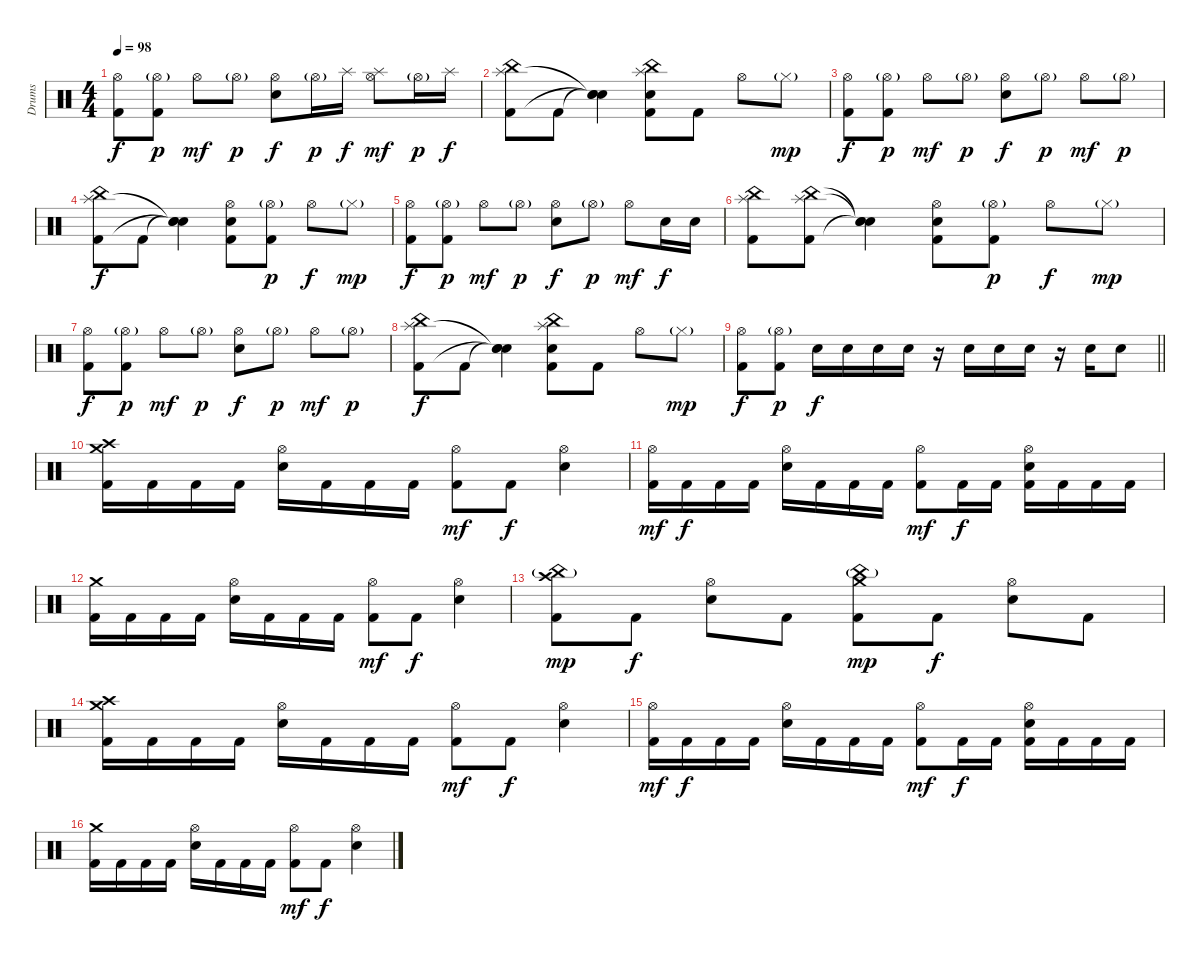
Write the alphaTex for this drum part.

\track ("Drums" "Drums") {instrument percussion}
\staff {score}
\articulation defaults
\ts (4 4)
\tempo 98
\clef neutral
\ks c
("Hi-Hat (open)" "Kick (hit) 2").8{dy f} ("Hi-Hat (open)"{g} "Kick (hit) 2").8{dy p} "Hi-Hat (open)".8{dy mf} "Hi-Hat (open)"{g}.8{dy p} ("Hi-Hat (open)" "Electric Snare (hit)").8{dy f} "Hi-Hat (open)"{g}.16{dy p} "Splash (hit)".16{dy f} ("Splash (hit)" "Hi-Hat (open)").8{dy mf} "Hi-Hat (open)"{g}.16{dy p} "Splash (hit)".16{dy f} |
("China (hit)" "Splash (hit)" "Kick (hit) 2").8 "Kick (hit) 2".8 ("Snare (hit)"{t} "Snare (hit)"{t} "Snare (hit)"{t}).4 ("China (hit)" "Splash (hit)" "Electric Snare (hit)" "Kick (hit) 2").8 "Kick (hit) 2".8 "Hi-Hat (open)".8 "Hi-Hat (closed)"{g}.8{dy mp} |
("Hi-Hat (open)" "Kick (hit) 2").8{dy f} ("Hi-Hat (open)"{g} "Kick (hit) 2").8{dy p} "Hi-Hat (open)".8{dy mf} "Hi-Hat (open)"{g}.8{dy p} ("Hi-Hat (open)" "Electric Snare (hit)").8{dy f} "Hi-Hat (open)"{g}.8{dy p} "Hi-Hat (open)".8{dy mf} "Hi-Hat (open)"{g}.8{dy p} |
("China (hit)" "Splash (hit)" "Kick (hit) 2").8{dy f} "Kick (hit) 2".8 ("Snare (hit)"{t} "Snare (hit)"{t} "Snare (hit)"{t}).4 ("Hi-Hat (open)" "Electric Snare (hit)" "Kick (hit) 2").8 ("Hi-Hat (open)"{g} "Kick (hit) 2").8{dy p} "Hi-Hat (open)".8{dy f} "Hi-Hat (closed)"{g}.8{dy mp} |
("Hi-Hat (open)" "Kick (hit) 2").8{dy f} ("Hi-Hat (open)"{g} "Kick (hit) 2").8{dy p} "Hi-Hat (open)".8{dy mf} "Hi-Hat (open)"{g}.8{dy p} ("Hi-Hat (open)" "Electric Snare (hit)").8{dy f} "Hi-Hat (open)"{g}.8{dy p} "Hi-Hat (open)".8{dy mf} "Electric Snare (hit)".16{dy f} "Electric Snare (hit)".16 |
("China (hit)" "Splash (hit)" "Kick (hit) 2").8 ("China (hit)" "Splash (hit)" "Kick (hit) 2").8 ("Snare (hit)"{t} "Snare (hit)"{t} "Snare (hit)"{t}).4 ("Hi-Hat (open)" "Electric Snare (hit)" "Kick (hit) 2").8 ("Hi-Hat (open)"{g} "Kick (hit) 2").8{dy p} "Hi-Hat (open)".8{dy f} "Hi-Hat (closed)"{g}.8{dy mp} |
("Hi-Hat (open)" "Kick (hit) 2").8{dy f} ("Hi-Hat (open)"{g} "Kick (hit) 2").8{dy p} "Hi-Hat (open)".8{dy mf} "Hi-Hat (open)"{g}.8{dy p} ("Hi-Hat (open)" "Electric Snare (hit)").8{dy f} "Hi-Hat (open)"{g}.8{dy p} "Hi-Hat (open)".8{dy mf} "Hi-Hat (open)"{g}.8{dy p} |
("China (hit)" "Splash (hit)" "Kick (hit) 2").8{dy f} "Kick (hit) 2".8 ("Snare (hit)"{t} "Snare (hit)"{t} "Snare (hit)"{t}).4 ("China (hit)" "Splash (hit)" "Electric Snare (hit)" "Kick (hit) 2").8 "Kick (hit) 2".8 "Hi-Hat (open)".8 "Hi-Hat (closed)"{g}.8{dy mp} |
\barLineRight lightlight
("Hi-Hat (open)" "Kick (hit) 2").8{dy f} ("Hi-Hat (open)"{g} "Kick (hit) 2").8{dy p} "Electric Snare (hit)".16{dy f} "Electric Snare (hit)".16 "Electric Snare (hit)".16 "Electric Snare (hit)".16 r.16 "Electric Snare (hit)".16 "Electric Snare (hit)".16 "Electric Snare (hit)".16 r.16 "Electric Snare (hit)".16 "Electric Snare (hit)".8 |
("Crash high (hit)" "Crash medium (hit)" "Kick (hit) 2").16 "Kick (hit) 2".16 "Kick (hit) 2".16 "Kick (hit) 2".16 ("Hi-Hat (open)" "Electric Snare (hit)").16 "Kick (hit) 2".16 "Kick (hit) 2".16 "Kick (hit) 2".16 ("Hi-Hat (open)" "Kick (hit) 2").8{dy mf} "Kick (hit) 2".8{dy f} ("Hi-Hat (open)" "Electric Snare (hit)").4 |
("Hi-Hat (open)" "Kick (hit) 2").16{dy mf} "Kick (hit) 2".16{dy f} "Kick (hit) 2".16 "Kick (hit) 2".16 ("Hi-Hat (open)" "Electric Snare (hit)").16 "Kick (hit) 2".16 "Kick (hit) 2".16 "Kick (hit) 2".16 ("Hi-Hat (open)" "Kick (hit) 2").8{dy mf} "Kick (hit) 2".16{dy f} "Kick (hit) 2".16 ("Hi-Hat (open)" "Electric Snare (hit)" "Kick (hit) 2").16 "Kick (hit) 2".16 "Kick (hit) 2".16 "Kick (hit) 2".16 |
("Crash medium (hit)" "Kick (hit) 2").16 "Kick (hit) 2".16 "Kick (hit) 2".16 "Kick (hit) 2".16 ("Hi-Hat (open)" "Electric Snare (hit)").16 "Kick (hit) 2".16 "Kick (hit) 2".16 "Kick (hit) 2".16 ("Hi-Hat (open)" "Kick (hit) 2").8{dy mf} "Kick (hit) 2".8{dy f} ("Hi-Hat (open)" "Electric Snare (hit)").4 |
("Crash high (hit)" "China (hit)"{g} "Kick (hit) 2").8{dy mp} "Kick (hit) 2".8{dy f} ("Hi-Hat (open)" "Electric Snare (hit)").8 "Kick (hit) 2".8 ("Crash medium (hit)" "China (hit)"{g} "Kick (hit) 2").8{dy mp} "Kick (hit) 2".8{dy f} ("Hi-Hat (open)" "Electric Snare (hit)").8 "Kick (hit) 2".8 |
("Crash high (hit)" "Crash medium (hit)" "Kick (hit) 2").16 "Kick (hit) 2".16 "Kick (hit) 2".16 "Kick (hit) 2".16 ("Hi-Hat (open)" "Electric Snare (hit)").16 "Kick (hit) 2".16 "Kick (hit) 2".16 "Kick (hit) 2".16 ("Hi-Hat (open)" "Kick (hit) 2").8{dy mf} "Kick (hit) 2".8{dy f} ("Hi-Hat (open)" "Electric Snare (hit)").4 |
("Hi-Hat (open)" "Kick (hit) 2").16{dy mf} "Kick (hit) 2".16{dy f} "Kick (hit) 2".16 "Kick (hit) 2".16 ("Hi-Hat (open)" "Electric Snare (hit)").16 "Kick (hit) 2".16 "Kick (hit) 2".16 "Kick (hit) 2".16 ("Hi-Hat (open)" "Kick (hit) 2").8{dy mf} "Kick (hit) 2".16{dy f} "Kick (hit) 2".16 ("Hi-Hat (open)" "Electric Snare (hit)" "Kick (hit) 2").16 "Kick (hit) 2".16 "Kick (hit) 2".16 "Kick (hit) 2".16 |
("Crash medium (hit)" "Kick (hit) 2").16 "Kick (hit) 2".16 "Kick (hit) 2".16 "Kick (hit) 2".16 ("Hi-Hat (open)" "Electric Snare (hit)").16 "Kick (hit) 2".16 "Kick (hit) 2".16 "Kick (hit) 2".16 ("Hi-Hat (open)" "Kick (hit) 2").8{dy mf} "Kick (hit) 2".8{dy f} ("Hi-Hat (open)" "Electric Snare (hit)").4
